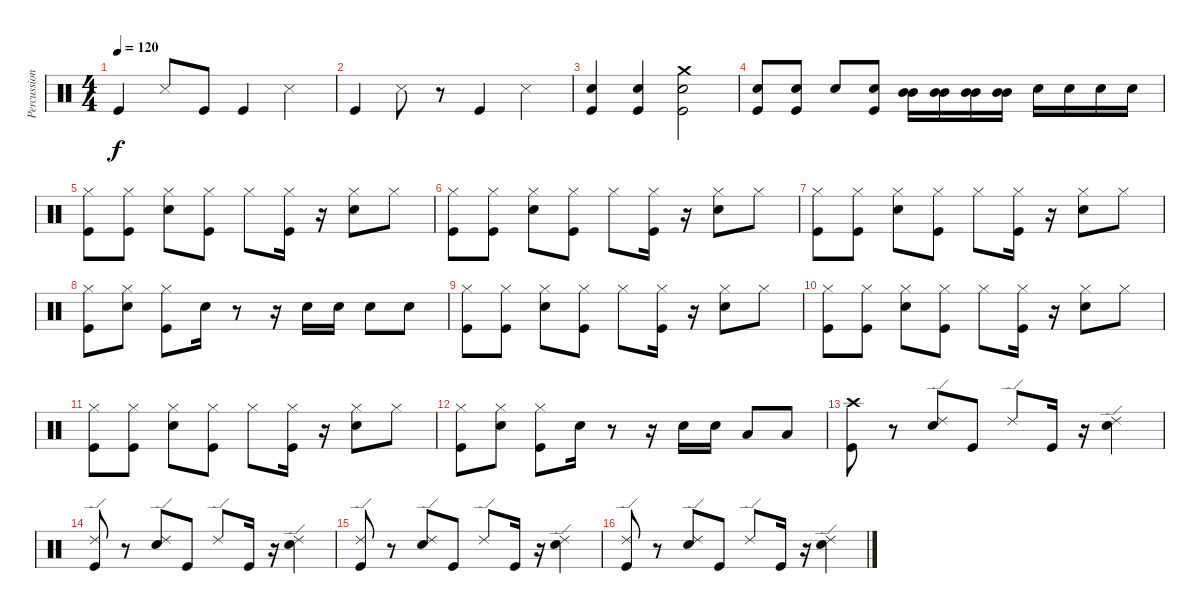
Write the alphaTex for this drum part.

\track ("Percussion" "Percussion") {instrument percussion}
\staff {score}
\articulation defaults
\ts (4 4)
\tempo 120
\clef neutral
\ks c "Kick (hit)".4{dy f} "Snare (side stick) 3".8 "Kick (hit)".8 "Kick (hit)".4 "Snare (side stick) 3".4
|
"Kick (hit)".4 "Snare (side stick) 3".8 r.8 "Kick (hit)".4 "Snare (side stick) 3".4 |
("Electric Snare (hit)" "Kick (hit)").4 ("Electric Snare (hit)" "Kick (hit)").4 ("Crash medium (hit)" "Electric Snare (hit)" "Kick (hit)").2 |
("Electric Snare (hit)" "Kick (hit)").8 ("Electric Snare (hit)" "Kick (hit)").8 "Electric Snare (hit)".8 ("Electric Snare (hit)" "Kick (hit)").8 ("Mid Tom (hit)" "Mid Tom (hit)").16 ("Mid Tom (hit)" "Mid Tom (hit)").16 ("Mid Tom (hit)" "Mid Tom (hit)").16 ("Mid Tom (hit)" "Mid Tom (hit)").16 "Electric Snare (hit)".16 "Electric Snare (hit)".16 "Electric Snare (hit)".16 "Electric Snare (hit)".16 |
("Hi-Hat (closed)" "Kick (hit)").8 ("Hi-Hat (closed)" "Kick (hit)").8 ("Hi-Hat (closed)" "Electric Snare (hit)").8 ("Hi-Hat (closed)" "Kick (hit)").8 "Hi-Hat (closed)".8 ("Hi-Hat (closed)" "Kick (hit)").16 r.16 ("Hi-Hat (closed)" "Electric Snare (hit)").8 "Hi-Hat (closed)".8 |
("Hi-Hat (closed)" "Kick (hit)").8 ("Hi-Hat (closed)" "Kick (hit)").8 ("Hi-Hat (closed)" "Electric Snare (hit)").8 ("Hi-Hat (closed)" "Kick (hit)").8 "Hi-Hat (closed)".8 ("Hi-Hat (closed)" "Kick (hit)").16 r.16 ("Hi-Hat (closed)" "Electric Snare (hit)").8 "Hi-Hat (closed)".8 |
("Hi-Hat (closed)" "Kick (hit)").8 ("Hi-Hat (closed)" "Kick (hit)").8 ("Hi-Hat (closed)" "Electric Snare (hit)").8 ("Hi-Hat (closed)" "Kick (hit)").8 "Hi-Hat (closed)".8 ("Hi-Hat (closed)" "Kick (hit)").16 r.16 ("Hi-Hat (closed)" "Electric Snare (hit)").8 "Hi-Hat (closed)".8 |
("Hi-Hat (closed)" "Kick (hit)").8 ("Hi-Hat (closed)" "Electric Snare (hit)").8 ("Hi-Hat (closed)" "Kick (hit)").8 "Electric Snare (hit)".16 r.8 r.16 "Electric Snare (hit)".16 "Electric Snare (hit)".16 "Electric Snare (hit)".8 "Electric Snare (hit)".8 |
("Hi-Hat (closed)" "Kick (hit)").8 ("Hi-Hat (closed)" "Kick (hit)").8 ("Hi-Hat (closed)" "Electric Snare (hit)").8 ("Hi-Hat (closed)" "Kick (hit)").8 "Hi-Hat (closed)".8 ("Hi-Hat (closed)" "Kick (hit)").16 r.16 ("Hi-Hat (closed)" "Electric Snare (hit)").8 "Hi-Hat (closed)".8 |
("Hi-Hat (closed)" "Kick (hit)").8 ("Hi-Hat (closed)" "Kick (hit)").8 ("Hi-Hat (closed)" "Electric Snare (hit)").8 ("Hi-Hat (closed)" "Kick (hit)").8 "Hi-Hat (closed)".8 ("Hi-Hat (closed)" "Kick (hit)").16 r.16 ("Hi-Hat (closed)" "Electric Snare (hit)").8 "Hi-Hat (closed)".8 |
("Hi-Hat (closed)" "Kick (hit)").8 ("Hi-Hat (closed)" "Kick (hit)").8 ("Hi-Hat (closed)" "Electric Snare (hit)").8 ("Hi-Hat (closed)" "Kick (hit)").8 "Hi-Hat (closed)".8 ("Hi-Hat (closed)" "Kick (hit)").16 r.16 ("Hi-Hat (closed)" "Electric Snare (hit)").8 "Hi-Hat (closed)".8 |
("Hi-Hat (closed)" "Kick (hit)").8 ("Hi-Hat (closed)" "Electric Snare (hit)").8 ("Hi-Hat (closed)" "Kick (hit)").8 "Electric Snare (hit)".16 r.8 r.16 "Electric Snare (hit)".16 "Electric Snare (hit)".16 "Low Tom (hit)".8 "Low Tom (hit)".8 |
("Crash high (hit)" "Kick (hit)").8 r.8 ("Ride (edge) 2" "Electric Snare (hit)").8 "Kick (hit)".8 "Ride (edge) 2".8 "Kick (hit)".16 r.16 ("Ride (edge) 2" "Electric Snare (hit)").4 |
("Ride (edge) 2" "Kick (hit)").8 r.8 ("Ride (edge) 2" "Electric Snare (hit)").8 "Kick (hit)".8 "Ride (edge) 2".8 "Kick (hit)".16 r.16 ("Ride (edge) 2" "Electric Snare (hit)").4 |
("Ride (edge) 2" "Kick (hit)").8 r.8 ("Ride (edge) 2" "Electric Snare (hit)").8 "Kick (hit)".8 "Ride (edge) 2".8 "Kick (hit)".16 r.16 ("Ride (edge) 2" "Electric Snare (hit)").4 |
("Ride (edge) 2" "Kick (hit)").8 r.8 ("Ride (edge) 2" "Electric Snare (hit)").8 "Kick (hit)".8 "Ride (edge) 2".8 "Kick (hit)".16 r.16 ("Ride (edge) 2" "Electric Snare (hit)").4
